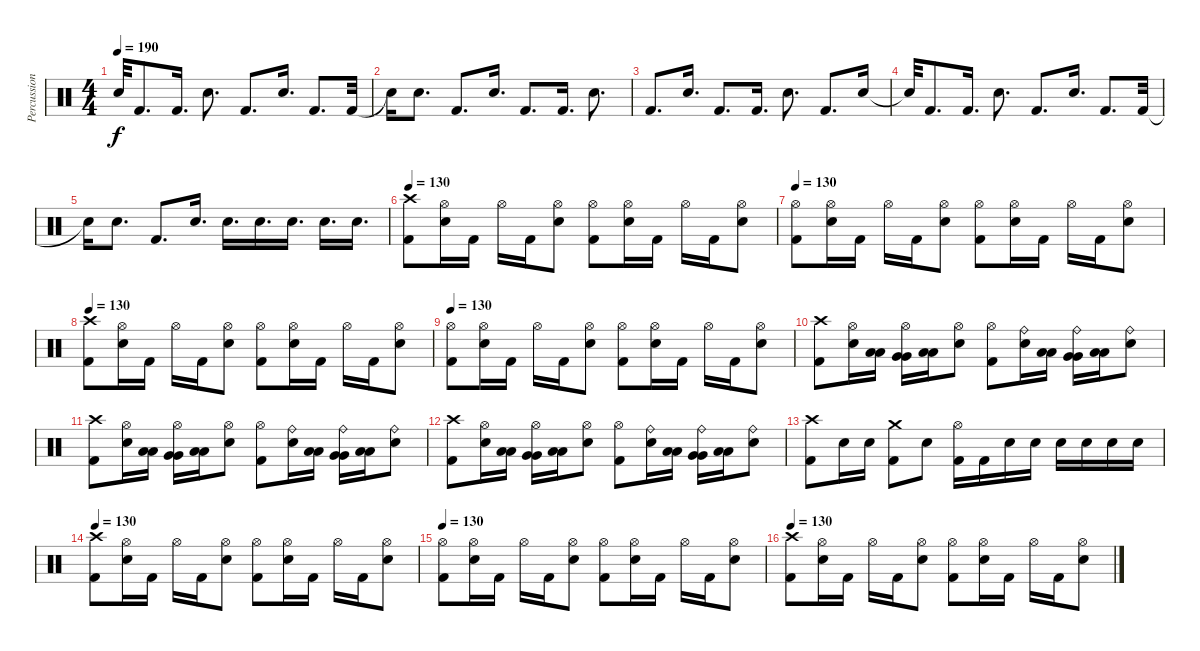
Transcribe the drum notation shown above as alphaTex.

\track ("Percussions" "Percussion") {instrument percussion}
\staff {score}
\articulation defaults
\ts (4 4)
\tempo 190
\clef neutral
\ks c "Snare (hit)"{t}.32{dy f} "Kick (hit) 2".8{d} "Kick (hit) 2".16{d} "Snare (hit) 2".8{d} "Kick (hit) 2".8{d} "Snare (hit) 2".16{d} "Kick (hit) 2".8{d} "Kick (hit) 2".32
|
"Snare (hit)"{t}.16 "Snare (hit) 2".8{d} "Kick (hit) 2".8{d} "Snare (hit) 2".16{d} "Kick (hit) 2".8{d} "Kick (hit) 2".16{d} "Snare (hit) 2".8{d} |
"Kick (hit) 2".8{d} "Snare (hit) 2".16{d} "Kick (hit) 2".8{d} "Kick (hit) 2".16{d} "Snare (hit) 2".8{d} "Kick (hit) 2".8{d} "Snare (hit) 2".16 |
"Snare (hit)"{t}.32 "Kick (hit) 2".8{d} "Kick (hit) 2".16{d} "Snare (hit) 2".8{d} "Kick (hit) 2".8{d} "Snare (hit) 2".16{d} "Kick (hit) 2".8{d} "Kick (hit) 2".32 |
"Snare (hit)"{t}.16 "Snare (hit) 2".8{d} "Kick (hit) 2".8{d} "Snare (hit) 2".16{d} "Snare (hit) 2".16{d} "Snare (hit) 2".16{d} "Snare (hit) 2".16{d} "Snare (hit) 2".16{d} "Snare (hit) 2".16{d} |
\tempo 130
("Crash high (hit)" "Kick (hit) 2").8 ("Hi-Hat (open)" "Snare (hit) 2").16 "Kick (hit) 2".16 "Hi-Hat (open)".16 "Kick (hit) 2".16 ("Hi-Hat (open)" "Snare (hit) 2").8 ("Hi-Hat (open)" "Kick (hit) 2").8 ("Hi-Hat (open)" "Snare (hit) 2").16 "Kick (hit) 2".16 "Hi-Hat (open)".16 "Kick (hit) 2".16 ("Hi-Hat (open)" "Snare (hit) 2").8 |
\tempo 130
("Hi-Hat (open)" "Kick (hit) 2").8 ("Hi-Hat (open)" "Snare (hit) 2").16 "Kick (hit) 2".16 "Hi-Hat (open)".16 "Kick (hit) 2".16 ("Hi-Hat (open)" "Snare (hit) 2").8 ("Hi-Hat (open)" "Kick (hit) 2").8 ("Hi-Hat (open)" "Snare (hit) 2").16 "Kick (hit) 2".16 "Hi-Hat (open)".16 "Kick (hit) 2".16 ("Hi-Hat (open)" "Snare (hit) 2").8 |
\tempo 130
("Crash high (hit)" "Kick (hit) 2").8 ("Hi-Hat (open)" "Snare (hit) 2").16 "Kick (hit) 2".16 "Hi-Hat (open)".16 "Kick (hit) 2".16 ("Hi-Hat (open)" "Snare (hit) 2").8 ("Hi-Hat (open)" "Kick (hit) 2").8 ("Hi-Hat (open)" "Snare (hit) 2").16 "Kick (hit) 2".16 "Hi-Hat (open)".16 "Kick (hit) 2".16 ("Hi-Hat (open)" "Snare (hit) 2").8 |
\tempo 130
("Hi-Hat (open)" "Kick (hit) 2").8 ("Hi-Hat (open)" "Snare (hit) 2").16 "Kick (hit) 2".16 "Hi-Hat (open)".16 "Kick (hit) 2".16 ("Hi-Hat (open)" "Snare (hit) 2").8 ("Hi-Hat (open)" "Kick (hit) 2").8 ("Hi-Hat (open)" "Snare (hit) 2").16 "Kick (hit) 2".16 "Hi-Hat (open)".16 "Kick (hit) 2".16 ("Hi-Hat (open)" "Snare (hit) 2").8 |
("Crash high (hit)" "Kick (hit) 2").8 ("Hi-Hat (open)" "Snare (hit) 2").16 ("Low Tom (hit)" "Low Tom (hit)").16 ("Hi-Hat (open)" "Very Low Tom (hit)" "Very Low Tom (hit)").16 ("Low Floor Tom (hit)" "Low Floor Tom (hit)").16 ("Hi-Hat (open)" "Snare (hit) 2").8 ("Hi-Hat (open)" "Kick (hit) 2").8 ("Ride (bell)" "Snare (hit) 2").16 ("Low Tom (hit)" "Low Tom (hit)").16 ("Ride (bell)" "Very Low Tom (hit)" "Very Low Tom (hit)").16 ("Low Floor Tom (hit)" "Low Floor Tom (hit)").16 ("Ride (bell)" "Snare (hit) 2").8 |
("Crash high (hit)" "Kick (hit) 2").8 ("Hi-Hat (open)" "Snare (hit) 2").16 ("Low Tom (hit)" "Low Tom (hit)").16 ("Hi-Hat (open)" "Very Low Tom (hit)" "Very Low Tom (hit)").16 ("Low Floor Tom (hit)" "Low Floor Tom (hit)").16 ("Hi-Hat (open)" "Snare (hit) 2").8 ("Hi-Hat (open)" "Kick (hit) 2").8 ("Ride (bell)" "Snare (hit) 2").16 ("Low Tom (hit)" "Low Tom (hit)").16 ("Ride (bell)" "Very Low Tom (hit)" "Very Low Tom (hit)").16 ("Low Floor Tom (hit)" "Low Floor Tom (hit)").16 ("Ride (bell)" "Snare (hit) 2").8 |
("Crash high (hit)" "Kick (hit) 2").8 ("Hi-Hat (open)" "Snare (hit) 2").16 ("Low Tom (hit)" "Low Tom (hit)").16 ("Hi-Hat (open)" "Very Low Tom (hit)" "Very Low Tom (hit)").16 ("Low Floor Tom (hit)" "Low Floor Tom (hit)").16 ("Hi-Hat (open)" "Snare (hit) 2").8 ("Hi-Hat (open)" "Kick (hit) 2").8 ("Ride (bell)" "Snare (hit) 2").16 ("Low Tom (hit)" "Low Tom (hit)").16 ("Ride (bell)" "Very Low Tom (hit)" "Very Low Tom (hit)").16 ("Low Floor Tom (hit)" "Low Floor Tom (hit)").16 ("Ride (bell)" "Snare (hit) 2").8 |
("Crash high (hit)" "Kick (hit) 2").8 "Snare (hit) 2".16 "Snare (hit) 2".16 ("Crash medium (hit)" "Kick (hit) 2").8 "Snare (hit) 2".8 ("Hi-Hat (open)" "Kick (hit) 2").16 "Kick (hit) 2".16 "Snare (hit) 2".16 "Snare (hit) 2".16 "Snare (hit) 2".16 "Snare (hit) 2".16 "Snare (hit) 2".16 "Snare (hit) 2".16 |
\tempo 130
("Crash high (hit)" "Kick (hit) 2").8 ("Hi-Hat (open)" "Snare (hit) 2").16 "Kick (hit) 2".16 "Hi-Hat (open)".16 "Kick (hit) 2".16 ("Hi-Hat (open)" "Snare (hit) 2").8 ("Hi-Hat (open)" "Kick (hit) 2").8 ("Hi-Hat (open)" "Snare (hit) 2").16 "Kick (hit) 2".16 "Hi-Hat (open)".16 "Kick (hit) 2".16 ("Hi-Hat (open)" "Snare (hit) 2").8 |
\tempo 130
("Hi-Hat (open)" "Kick (hit) 2").8 ("Hi-Hat (open)" "Snare (hit) 2").16 "Kick (hit) 2".16 "Hi-Hat (open)".16 "Kick (hit) 2".16 ("Hi-Hat (open)" "Snare (hit) 2").8 ("Hi-Hat (open)" "Kick (hit) 2").8 ("Hi-Hat (open)" "Snare (hit) 2").16 "Kick (hit) 2".16 "Hi-Hat (open)".16 "Kick (hit) 2".16 ("Hi-Hat (open)" "Snare (hit) 2").8 |
\tempo 130
("Crash high (hit)" "Kick (hit) 2").8 ("Hi-Hat (open)" "Snare (hit) 2").16 "Kick (hit) 2".16 "Hi-Hat (open)".16 "Kick (hit) 2".16 ("Hi-Hat (open)" "Snare (hit) 2").8 ("Hi-Hat (open)" "Kick (hit) 2").8 ("Hi-Hat (open)" "Snare (hit) 2").16 "Kick (hit) 2".16 "Hi-Hat (open)".16 "Kick (hit) 2".16 ("Hi-Hat (open)" "Snare (hit) 2").8
